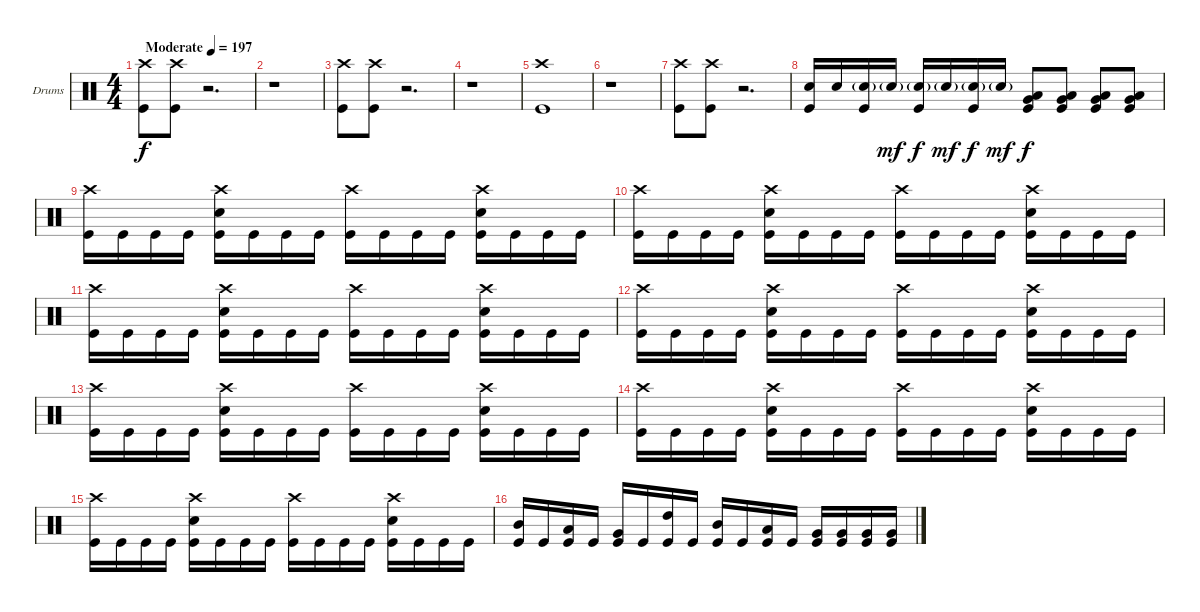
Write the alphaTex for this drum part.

\bracketExtendMode groupsimilarinstruments
\firstSystemTrackNameOrientation horizontal
\otherSystemsTrackNameOrientation horizontal
\track ("Drumkit" "Drums") {instrument percussion}
\staff {score}
\articulation defaults
\ts (4 4)
\beaming (8 2 2 2 2)
\tempo (197 "Moderate")
\clef neutral
\ks c
("Crash high (hit)" "Kick (hit)").8{dy f} ("Crash high (hit)" "Kick (hit)").8 r.2{d} |
r.1 |
("Crash high (hit)" "Kick (hit)").8 ("Crash high (hit)" "Kick (hit)").8 r.2{d} |
r.1 |
("Crash high (hit)" "Kick (hit)").1 |
r.1 |
("Crash high (hit)" "Kick (hit)").8 ("Crash high (hit)" "Kick (hit)").8 r.2{d} |
("Snare (hit) 2" "Kick (hit)").16 "Snare (hit) 2".16 ("Snare (hit) 2"{g} "Kick (hit)").16 "Snare (hit) 2"{g}.16{dy mf} ("Snare (hit) 2"{g} "Kick (hit)").16{dy f} "Snare (hit) 2"{g}.16{dy mf} ("Snare (hit) 2"{g} "Kick (hit)").16{dy f} "Snare (hit) 2"{g}.16{dy mf} ("Low Tom (hit)" "Very Low Tom (hit)" "Kick (hit)").8{dy f} ("Low Tom (hit)" "Very Low Tom (hit)" "Kick (hit)").8 ("Low Tom (hit)" "Very Low Tom (hit)" "Kick (hit)").8 ("Low Tom (hit)" "Very Low Tom (hit)" "Kick (hit)").8 |
("Crash high (hit)" "Kick (hit)").16 "Kick (hit)".16 "Kick (hit)".16 "Kick (hit)".16 ("Crash high (hit)" "Snare (hit) 2" "Kick (hit)").16 "Kick (hit)".16 "Kick (hit)".16 "Kick (hit)".16 ("Crash high (hit)" "Kick (hit)").16 "Kick (hit)".16 "Kick (hit)".16 "Kick (hit)".16 ("Crash high (hit)" "Snare (hit) 2" "Kick (hit)").16 "Kick (hit)".16 "Kick (hit)".16 "Kick (hit)".16 |
("Crash high (hit)" "Kick (hit)").16 "Kick (hit)".16 "Kick (hit)".16 "Kick (hit)".16 ("Crash high (hit)" "Snare (hit) 2" "Kick (hit)").16 "Kick (hit)".16 "Kick (hit)".16 "Kick (hit)".16 ("Crash high (hit)" "Kick (hit)").16 "Kick (hit)".16 "Kick (hit)".16 "Kick (hit)".16 ("Crash high (hit)" "Snare (hit) 2" "Kick (hit)").16 "Kick (hit)".16 "Kick (hit)".16 "Kick (hit)".16 |
("Crash high (hit)" "Kick (hit)").16 "Kick (hit)".16 "Kick (hit)".16 "Kick (hit)".16 ("Crash high (hit)" "Snare (hit) 2" "Kick (hit)").16 "Kick (hit)".16 "Kick (hit)".16 "Kick (hit)".16 ("Crash high (hit)" "Kick (hit)").16 "Kick (hit)".16 "Kick (hit)".16 "Kick (hit)".16 ("Crash high (hit)" "Snare (hit) 2" "Kick (hit)").16 "Kick (hit)".16 "Kick (hit)".16 "Kick (hit)".16 |
("Crash high (hit)" "Kick (hit)").16 "Kick (hit)".16 "Kick (hit)".16 "Kick (hit)".16 ("Crash high (hit)" "Snare (hit) 2" "Kick (hit)").16 "Kick (hit)".16 "Kick (hit)".16 "Kick (hit)".16 ("Crash high (hit)" "Kick (hit)").16 "Kick (hit)".16 "Kick (hit)".16 "Kick (hit)".16 ("Crash high (hit)" "Snare (hit) 2" "Kick (hit)").16 "Kick (hit)".16 "Kick (hit)".16 "Kick (hit)".16 |
("Crash high (hit)" "Kick (hit)").16 "Kick (hit)".16 "Kick (hit)".16 "Kick (hit)".16 ("Crash high (hit)" "Snare (hit) 2" "Kick (hit)").16 "Kick (hit)".16 "Kick (hit)".16 "Kick (hit)".16 ("Crash high (hit)" "Kick (hit)").16 "Kick (hit)".16 "Kick (hit)".16 "Kick (hit)".16 ("Crash high (hit)" "Snare (hit) 2" "Kick (hit)").16 "Kick (hit)".16 "Kick (hit)".16 "Kick (hit)".16 |
("Crash high (hit)" "Kick (hit)").16 "Kick (hit)".16 "Kick (hit)".16 "Kick (hit)".16 ("Crash high (hit)" "Snare (hit) 2" "Kick (hit)").16 "Kick (hit)".16 "Kick (hit)".16 "Kick (hit)".16 ("Crash high (hit)" "Kick (hit)").16 "Kick (hit)".16 "Kick (hit)".16 "Kick (hit)".16 ("Crash high (hit)" "Snare (hit) 2" "Kick (hit)").16 "Kick (hit)".16 "Kick (hit)".16 "Kick (hit)".16 |
("Crash high (hit)" "Kick (hit)").16 "Kick (hit)".16 "Kick (hit)".16 "Kick (hit)".16 ("Crash high (hit)" "Snare (hit) 2" "Kick (hit)").16 "Kick (hit)".16 "Kick (hit)".16 "Kick (hit)".16 ("Crash high (hit)" "Kick (hit)").16 "Kick (hit)".16 "Kick (hit)".16 "Kick (hit)".16 ("Crash high (hit)" "Snare (hit) 2" "Kick (hit)").16 "Kick (hit)".16 "Kick (hit)".16 "Kick (hit)".16 |
("Mid Tom (hit)" "Kick (hit)").16 "Kick (hit)".16 ("Low Tom (hit)" "Kick (hit)").16 "Kick (hit)".16 ("Very Low Tom (hit)" "Kick (hit)").16 "Kick (hit)".16 ("High Tom (hit)" "Kick (hit)").16 "Kick (hit)".16 ("Mid Tom (hit)" "Kick (hit)").16 "Kick (hit)".16 ("Low Tom (hit)" "Kick (hit)").16 "Kick (hit)".16 ("Very Low Tom (hit)" "Kick (hit)").16 ("Very Low Tom (hit)" "Kick (hit)").16 ("Very Low Tom (hit)" "Kick (hit)").16 ("Very Low Tom (hit)" "Kick (hit)").16
